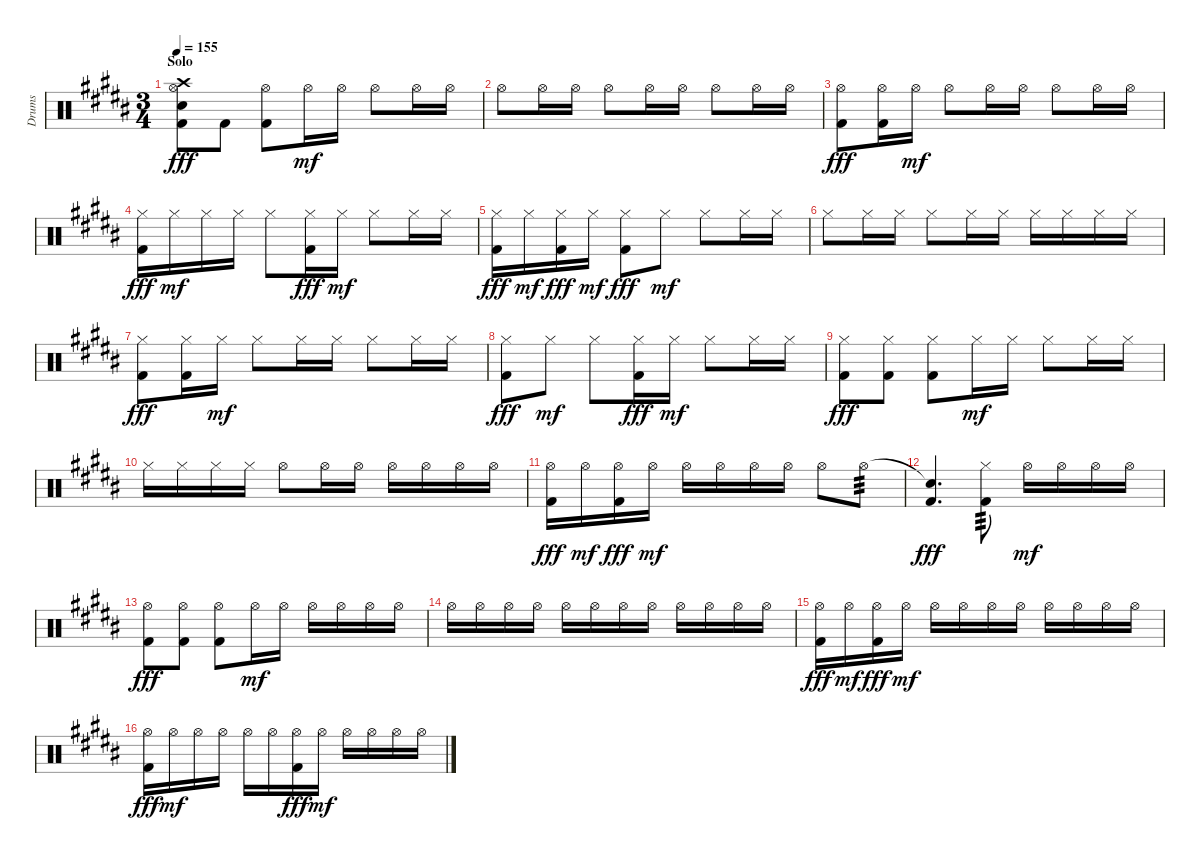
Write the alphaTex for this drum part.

\track ("Drums" "Drums") {instrument percussion}
\staff {score}
\articulation defaults
\ts (3 4)
\section ("" "Solo")
\tempo 155
\clef neutral
\ks b
("Hi-Hat (open)" "Crash high (hit)" "Snare (hit) 2" "Kick (hit) 2").8{dy fff} "Kick (hit) 2".8 ("Hi-Hat (open)" "Kick (hit) 2").8 "Hi-Hat (open)".16{dy mf} "Hi-Hat (open)".16 "Hi-Hat (open)".8 "Hi-Hat (open)".16 "Hi-Hat (open)".16 |
"Hi-Hat (open)".8 "Hi-Hat (open)".16 "Hi-Hat (open)".16 "Hi-Hat (open)".8 "Hi-Hat (open)".16 "Hi-Hat (open)".16 "Hi-Hat (open)".8 "Hi-Hat (open)".16 "Hi-Hat (open)".16 |
("Hi-Hat (open)" "Kick (hit) 2").8{dy fff} ("Hi-Hat (open)" "Kick (hit) 2").16 "Hi-Hat (open)".16{dy mf} "Hi-Hat (open)".8 "Hi-Hat (open)".16 "Hi-Hat (open)".16 "Hi-Hat (open)".8 "Hi-Hat (open)".16 "Hi-Hat (open)".16 |
("Hi-Hat (closed)" "Kick (hit) 2").16{dy fff} "Hi-Hat (closed)".16{dy mf} "Hi-Hat (closed)".16 "Hi-Hat (closed)".16 "Hi-Hat (closed)".8 ("Hi-Hat (closed)" "Kick (hit) 2").16{dy fff} "Hi-Hat (closed)".16{dy mf} "Hi-Hat (closed)".8 "Hi-Hat (closed)".16 "Hi-Hat (closed)".16 |
("Hi-Hat (closed)" "Kick (hit) 2").16{dy fff} "Hi-Hat (closed)".16{dy mf} ("Hi-Hat (closed)" "Kick (hit) 2").16{dy fff} "Hi-Hat (closed)".16{dy mf} ("Hi-Hat (closed)" "Kick (hit) 2").8{dy fff} "Hi-Hat (closed)".8{dy mf} "Hi-Hat (closed)".8 "Hi-Hat (closed)".16 "Hi-Hat (closed)".16 |
"Hi-Hat (closed)".8 "Hi-Hat (closed)".16 "Hi-Hat (closed)".16 "Hi-Hat (closed)".8 "Hi-Hat (closed)".16 "Hi-Hat (closed)".16 "Hi-Hat (closed)".16 "Hi-Hat (closed)".16 "Hi-Hat (closed)".16 "Hi-Hat (closed)".16 |
("Hi-Hat (closed)" "Kick (hit) 2").8{dy fff} ("Hi-Hat (closed)" "Kick (hit) 2").16 "Hi-Hat (closed)".16{dy mf} "Hi-Hat (closed)".8 "Hi-Hat (closed)".16 "Hi-Hat (closed)".16 "Hi-Hat (closed)".8 "Hi-Hat (closed)".16 "Hi-Hat (closed)".16 |
("Hi-Hat (closed)" "Kick (hit) 2").8{dy fff} "Hi-Hat (closed)".8{dy mf} "Hi-Hat (closed)".8 ("Hi-Hat (closed)" "Kick (hit) 2").16{dy fff} "Hi-Hat (closed)".16{dy mf} "Hi-Hat (closed)".8 "Hi-Hat (closed)".16 "Hi-Hat (closed)".16 |
("Hi-Hat (closed)" "Kick (hit) 2").8{dy fff} ("Hi-Hat (closed)" "Kick (hit) 2").8 ("Hi-Hat (closed)" "Kick (hit) 2").8 "Hi-Hat (closed)".16{dy mf} "Hi-Hat (closed)".16 "Hi-Hat (closed)".8 "Hi-Hat (closed)".16 "Hi-Hat (closed)".16 |
"Hi-Hat (closed)".16 "Hi-Hat (closed)".16 "Hi-Hat (closed)".16 "Hi-Hat (closed)".16 "Hi-Hat (open)".8 "Hi-Hat (open)".16 "Hi-Hat (open)".16 "Hi-Hat (open)".16 "Hi-Hat (open)".16 "Hi-Hat (open)".16 "Hi-Hat (open)".16 |
("Hi-Hat (open)" "Kick (hit) 2").16{dy fff} "Hi-Hat (open)".16{dy mf} ("Hi-Hat (open)" "Kick (hit) 2").16{dy fff} "Hi-Hat (open)".16{dy mf} "Hi-Hat (open)".16 "Hi-Hat (open)".16 "Hi-Hat (open)".16 "Hi-Hat (open)".16 "Hi-Hat (open)".8 "Hi-Hat (open)".8{tp 3} |
("Snare (hit)"{t} "Kick (hit) 2").4{d dy fff} ("Hi-Hat (closed)" "Kick (hit) 2").8{tp 3} "Hi-Hat (open)".16{dy mf} "Hi-Hat (open)".16 "Hi-Hat (open)".16 "Hi-Hat (open)".16 |
("Hi-Hat (open)" "Kick (hit) 2").8{dy fff} ("Hi-Hat (open)" "Kick (hit) 2").8 ("Hi-Hat (open)" "Kick (hit) 2").8 "Hi-Hat (open)".16{dy mf} "Hi-Hat (open)".16 "Hi-Hat (open)".16 "Hi-Hat (open)".16 "Hi-Hat (open)".16 "Hi-Hat (open)".16 |
"Hi-Hat (open)".16 "Hi-Hat (open)".16 "Hi-Hat (open)".16 "Hi-Hat (open)".16 "Hi-Hat (open)".16 "Hi-Hat (open)".16 "Hi-Hat (open)".16 "Hi-Hat (open)".16 "Hi-Hat (open)".16 "Hi-Hat (open)".16 "Hi-Hat (open)".16 "Hi-Hat (open)".16 |
("Hi-Hat (open)" "Kick (hit) 2").16{dy fff} "Hi-Hat (open)".16{dy mf} ("Hi-Hat (open)" "Kick (hit) 2").16{dy fff} "Hi-Hat (open)".16{dy mf} "Hi-Hat (open)".16 "Hi-Hat (open)".16 "Hi-Hat (open)".16 "Hi-Hat (open)".16 "Hi-Hat (open)".16 "Hi-Hat (open)".16 "Hi-Hat (open)".16 "Hi-Hat (open)".16 |
("Hi-Hat (open)" "Kick (hit) 2").16{dy fff} "Hi-Hat (open)".16{dy mf} "Hi-Hat (open)".16 "Hi-Hat (open)".16 "Hi-Hat (open)".16 "Hi-Hat (open)".16 ("Hi-Hat (open)" "Kick (hit) 2").16{dy fff} "Hi-Hat (open)".16{dy mf} "Hi-Hat (open)".16 "Hi-Hat (open)".16 "Hi-Hat (open)".16 "Hi-Hat (open)".16
